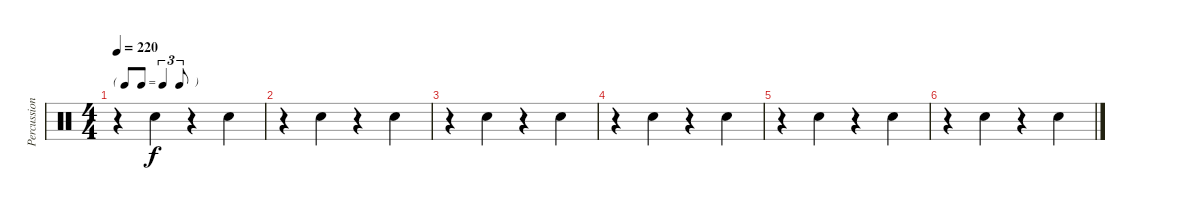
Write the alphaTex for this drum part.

\track ("Percussion" "Percussion") {instrument percussion}
\staff {score}
\articulation defaults
\ts (4 4)
\tf triplet8th
\tempo 220
\clef neutral
\ks c
r.4{dy f} "Snare (hit) 2".4 r.4 "Snare (hit) 2".4 |
r.4 "Snare (hit) 2".4 r.4 "Snare (hit) 2".4 |
r.4 "Snare (hit) 2".4 r.4 "Snare (hit) 2".4 |
r.4 "Snare (hit) 2".4 r.4 "Snare (hit) 2".4 |
r.4 "Snare (hit) 2".4 r.4 "Snare (hit) 2".4 |
r.4 "Snare (hit) 2".4 r.4 "Snare (hit) 2".4
